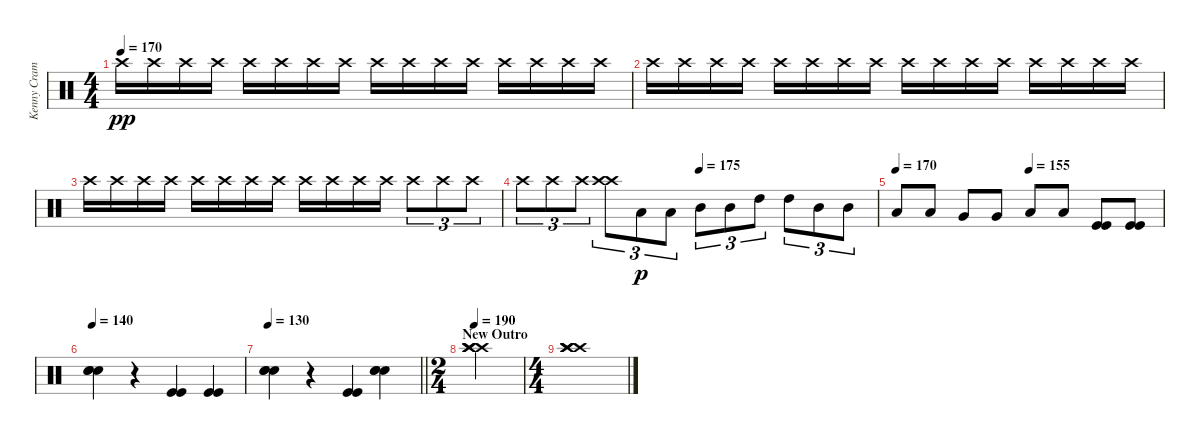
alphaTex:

\track ("Kenny Cramme" "Kenny Cram") {instrument percussion}
\staff {score}
\articulation defaults
\ts (4 4)
\tempo 170
\clef neutral
\ks c "Crash high (hit)".16{dy pp} "Crash high (hit)".16 "Crash high (hit)".16 "Crash high (hit)".16 "Crash high (hit)".16 "Crash high (hit)".16 "Crash high (hit)".16 "Crash high (hit)".16 "Crash high (hit)".16 "Crash high (hit)".16 "Crash high (hit)".16 "Crash high (hit)".16 "Crash high (hit)".16 "Crash high (hit)".16 "Crash high (hit)".16 "Crash high (hit)".16
|
"Crash high (hit)".16 "Crash high (hit)".16 "Crash high (hit)".16 "Crash high (hit)".16 "Crash high (hit)".16 "Crash high (hit)".16 "Crash high (hit)".16 "Crash high (hit)".16 "Crash high (hit)".16 "Crash high (hit)".16 "Crash high (hit)".16 "Crash high (hit)".16 "Crash high (hit)".16 "Crash high (hit)".16 "Crash high (hit)".16 "Crash high (hit)".16 |
"Crash high (hit)".16 "Crash high (hit)".16 "Crash high (hit)".16 "Crash high (hit)".16 "Crash high (hit)".16 "Crash high (hit)".16 "Crash high (hit)".16 "Crash high (hit)".16 "Crash high (hit)".16 "Crash high (hit)".16 "Crash high (hit)".16 "Crash high (hit)".16 "Crash high (hit)".8{tu (3 2) volume 16} "Crash high (hit)".8{tu (3 2)} "Crash high (hit)".8{tu (3 2)} |
\tempo (175 0.5)
"Crash high (hit)".8{tu (3 2) volume 13} "Crash high (hit)".8{tu (3 2)} "Crash high (hit)".8{tu (3 2)} ("Crash high (hit)" "Crash high (hit)").8{tu (3 2)} "Low Tom (hit)".8{tu (3 2) dy p} "Low Tom (hit)".8{tu (3 2)} "Mid Tom (hit)".8{tu (3 2)} "Mid Tom (hit)".8{tu (3 2)} "High Tom (hit)".8{tu (3 2)} "High Tom (hit)".8{tu (3 2)} "Mid Tom (hit)".8{tu (3 2)} "Mid Tom (hit)".8{tu (3 2)} |
\tempo 170
\tempo (155 0.5)
"Low Tom (hit)".8 "Low Tom (hit)".8 "Very Low Tom (hit)".8 "Very Low Tom (hit)".8 "Low Floor Tom (hit)".8 "Low Floor Tom (hit)".8 ("Kick (hit)" "Kick (hit)").8 ("Kick (hit)" "Kick (hit)").8 |
\tempo 140
("Snare (hit) 2" "Snare (hit) 2" "Snare (hit) 2").4 r.4 ("Kick (hit)" "Kick (hit)").4 ("Kick (hit)" "Kick (hit)").4 |
\tempo 130
\barLineRight lightlight
("Snare (hit) 2" "Snare (hit) 2" "Snare (hit) 2").4 r.4 ("Kick (hit)" "Kick (hit)").4 ("Snare (hit) 2" "Snare (hit) 2" "Snare (hit) 2").4 |
\ts (2 4)
\section ("" "New Outro")
\tempo 190
("Crash high (hit)" "Crash high (hit)" "Crash high (hit)" "Crash high (hit)").2 |
\ts (4 4)
("Crash high (hit)" "Crash high (hit)" "Crash high (hit)" "Crash high (hit)").1
